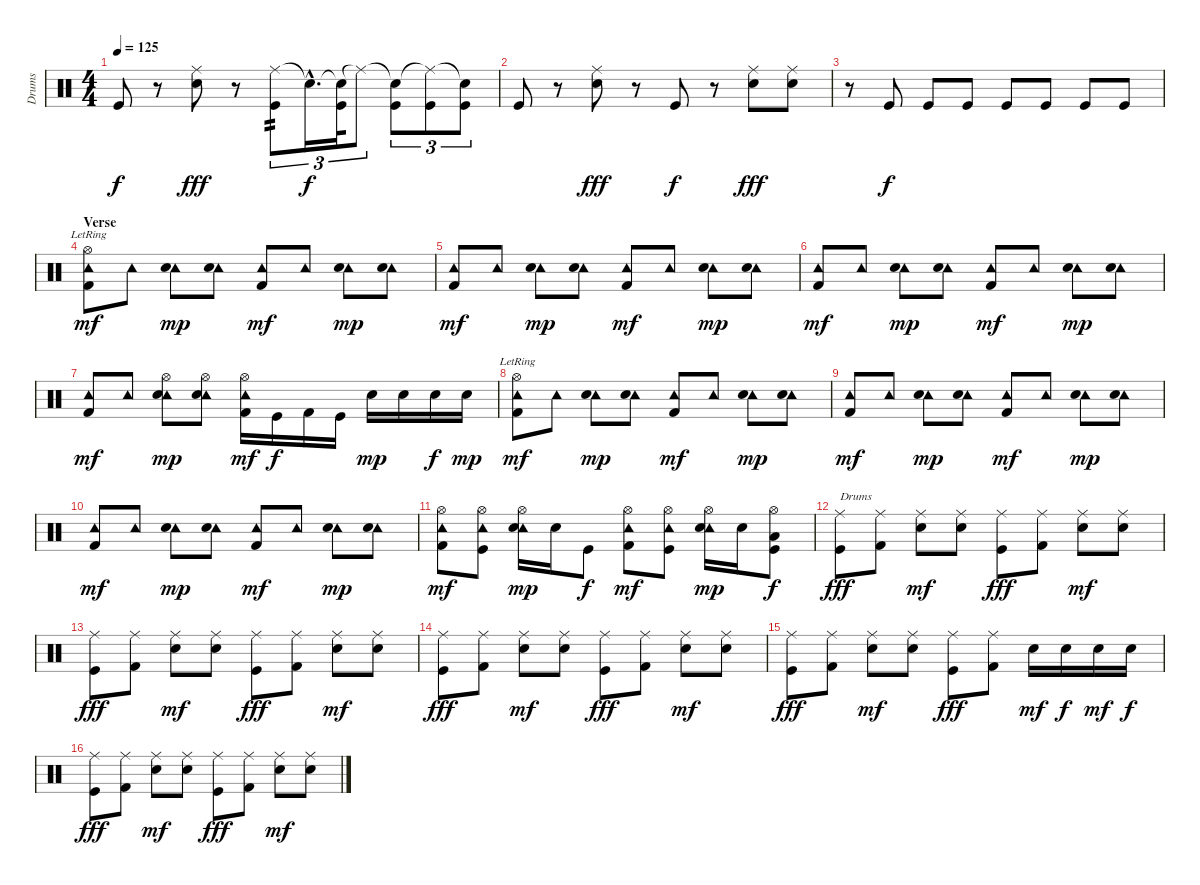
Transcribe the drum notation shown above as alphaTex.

\track ("Drums" "Drums") {instrument percussion}
\staff {score}
\articulation defaults
\ts (4 4)
\tempo 125
\clef neutral
\ks c "Kick (hit)".8{dy f}
r.8 ("Ride (middle)" "Snare (hit) 2").8{dy fff} r.8 ("Ride (middle)" "Kick (hit)").8{tu (3 2) tp 2} "Snare (hit)"{hac t}.16{d tu (3 2) dy f} ("Snare (hit)"{t} "Kick (hit)").32{tu (3 2)} "Ride (middle)"{t}.8{tu (3 2)} ("Snare (hit)"{t} "Kick (hit)").8{tu (3 2)} ("Ride (middle)"{t} "Kick (hit)").8{tu (3 2)} ("Snare (hit)"{t} "Kick (hit)").8{tu (3 2)} |
"Kick (hit)".8 r.8 ("Ride (middle)" "Snare (hit) 2").8{dy fff} r.8 "Kick (hit)".8{dy f} r.8 ("Ride (middle)" "Snare (hit) 2").8{dy fff} ("Ride (middle)" "Snare (hit) 2").8 |
r.8 "Kick (hit)".8{dy f} "Kick (hit)".8 "Kick (hit)".8 "Kick (hit)".8 "Kick (hit)".8 "Kick (hit)".8 "Kick (hit)".8 |
\section ("" "Verse")
("Hi-Hat (open)"{lr} "Tambourine (hit)" "Kick (hit) 2").8{dy mf} "Tambourine (hit)".8 ("Tambourine (hit)" "Electric Snare (hit)").8{dy mp} ("Tambourine (hit)" "Electric Snare (hit)").8 ("Tambourine (hit)" "Kick (hit) 2").8{dy mf} "Tambourine (hit)".8 ("Tambourine (hit)" "Electric Snare (hit)").8{dy mp} ("Tambourine (hit)" "Electric Snare (hit)").8 |
("Tambourine (hit)" "Kick (hit) 2").8{dy mf} "Tambourine (hit)".8 ("Tambourine (hit)" "Electric Snare (hit)").8{dy mp} ("Tambourine (hit)" "Electric Snare (hit)").8 ("Tambourine (hit)" "Kick (hit) 2").8{dy mf} "Tambourine (hit)".8 ("Tambourine (hit)" "Electric Snare (hit)").8{dy mp} ("Tambourine (hit)" "Electric Snare (hit)").8 |
("Tambourine (hit)" "Kick (hit) 2").8{dy mf} "Tambourine (hit)".8 ("Tambourine (hit)" "Electric Snare (hit)").8{dy mp} ("Tambourine (hit)" "Electric Snare (hit)").8 ("Tambourine (hit)" "Kick (hit) 2").8{dy mf} "Tambourine (hit)".8 ("Tambourine (hit)" "Electric Snare (hit)").8{dy mp} ("Tambourine (hit)" "Electric Snare (hit)").8 |
("Tambourine (hit)" "Kick (hit) 2").8{dy mf} "Tambourine (hit)".8 ("Hi-Hat (open)" "Tambourine (hit)" "Electric Snare (hit)").8{dy mp} ("Hi-Hat (open)" "Tambourine (hit)" "Electric Snare (hit)").8 ("Hi-Hat (open)" "Tambourine (hit)" "Kick (hit) 2").16{dy mf} "Kick (hit)".16{dy f} "Kick (hit) 2".16 "Kick (hit)".16 "Snare (hit) 2".16{dy mp} "Snare (hit) 2".16 "Electric Snare (hit)".16{dy f} "Snare (hit) 2".16{dy mp} |
("Hi-Hat (open)"{lr} "Tambourine (hit)" "Kick (hit) 2").8{dy mf} "Tambourine (hit)".8 ("Tambourine (hit)" "Electric Snare (hit)").8{dy mp} ("Tambourine (hit)" "Electric Snare (hit)").8 ("Tambourine (hit)" "Kick (hit) 2").8{dy mf} "Tambourine (hit)".8 ("Tambourine (hit)" "Electric Snare (hit)").8{dy mp} ("Tambourine (hit)" "Electric Snare (hit)").8 |
("Tambourine (hit)" "Kick (hit) 2").8{dy mf} "Tambourine (hit)".8 ("Tambourine (hit)" "Electric Snare (hit)").8{dy mp} ("Tambourine (hit)" "Electric Snare (hit)").8 ("Tambourine (hit)" "Kick (hit) 2").8{dy mf} "Tambourine (hit)".8 ("Tambourine (hit)" "Electric Snare (hit)").8{dy mp} ("Tambourine (hit)" "Electric Snare (hit)").8 |
("Tambourine (hit)" "Kick (hit) 2").8{dy mf} "Tambourine (hit)".8 ("Tambourine (hit)" "Electric Snare (hit)").8{dy mp} ("Tambourine (hit)" "Electric Snare (hit)").8 ("Tambourine (hit)" "Kick (hit) 2").8{dy mf} "Tambourine (hit)".8 ("Tambourine (hit)" "Electric Snare (hit)").8{dy mp} ("Tambourine (hit)" "Electric Snare (hit)").8 |
("Hi-Hat (open)" "Tambourine (hit)" "Kick (hit) 2").8{dy mf} ("Hi-Hat (open)" "Tambourine (hit)" "Kick (hit)").8 ("Hi-Hat (open)" "Tambourine (hit)" "Electric Snare (hit)").16{dy mp} "Snare (hit) 2".16 "Kick (hit)".8{dy f} ("Hi-Hat (open)" "Tambourine (hit)" "Kick (hit) 2").8{dy mf} ("Hi-Hat (open)" "Tambourine (hit)" "Kick (hit)").8 ("Hi-Hat (open)" "Tambourine (hit)" "Electric Snare (hit)").16{dy mp} "Snare (hit) 2".16 ("Hi-Hat (open)" "Low Tom (hit)" "Kick (hit)").8{dy f} |
("Ride (middle)" "Kick (hit)").8{txt "Drums" dy fff} ("Ride (middle)" "Kick (hit) 2").8 ("Ride (middle)" "Electric Snare (hit)").8{dy mf} ("Ride (middle)" "Electric Snare (hit)").8 ("Ride (middle)" "Kick (hit)").8{dy fff} ("Ride (middle)" "Kick (hit) 2").8 ("Ride (middle)" "Electric Snare (hit)").8{dy mf} ("Ride (middle)" "Electric Snare (hit)").8 |
("Ride (middle)" "Kick (hit)").8{dy fff} ("Ride (middle)" "Kick (hit) 2").8 ("Ride (middle)" "Electric Snare (hit)").8{dy mf} ("Ride (middle)" "Electric Snare (hit)").8 ("Ride (middle)" "Kick (hit)").8{dy fff} ("Ride (middle)" "Kick (hit) 2").8 ("Ride (middle)" "Electric Snare (hit)").8{dy mf} ("Ride (middle)" "Electric Snare (hit)").8 |
("Ride (middle)" "Kick (hit)").8{dy fff} ("Ride (middle)" "Kick (hit) 2").8 ("Ride (middle)" "Electric Snare (hit)").8{dy mf} ("Ride (middle)" "Electric Snare (hit)").8 ("Ride (middle)" "Kick (hit)").8{dy fff} ("Ride (middle)" "Kick (hit) 2").8 ("Ride (middle)" "Electric Snare (hit)").8{dy mf} ("Ride (middle)" "Electric Snare (hit)").8 |
("Ride (middle)" "Kick (hit)").8{dy fff} ("Ride (middle)" "Kick (hit) 2").8 ("Ride (middle)" "Electric Snare (hit)").8{dy mf} ("Ride (middle)" "Electric Snare (hit)").8 ("Ride (middle)" "Kick (hit)").8{dy fff} ("Ride (middle)" "Kick (hit) 2").8 "Electric Snare (hit)".16{dy mf} "Snare (hit) 2".16{dy f} "Electric Snare (hit)".16{dy mf} "Snare (hit) 2".16{dy f} |
("Ride (middle)" "Kick (hit)").8{dy fff} ("Ride (middle)" "Kick (hit) 2").8 ("Ride (middle)" "Electric Snare (hit)").8{dy mf} ("Ride (middle)" "Electric Snare (hit)").8 ("Ride (middle)" "Kick (hit)").8{dy fff} ("Ride (middle)" "Kick (hit) 2").8 ("Ride (middle)" "Electric Snare (hit)").8{dy mf} ("Ride (middle)" "Electric Snare (hit)").8
